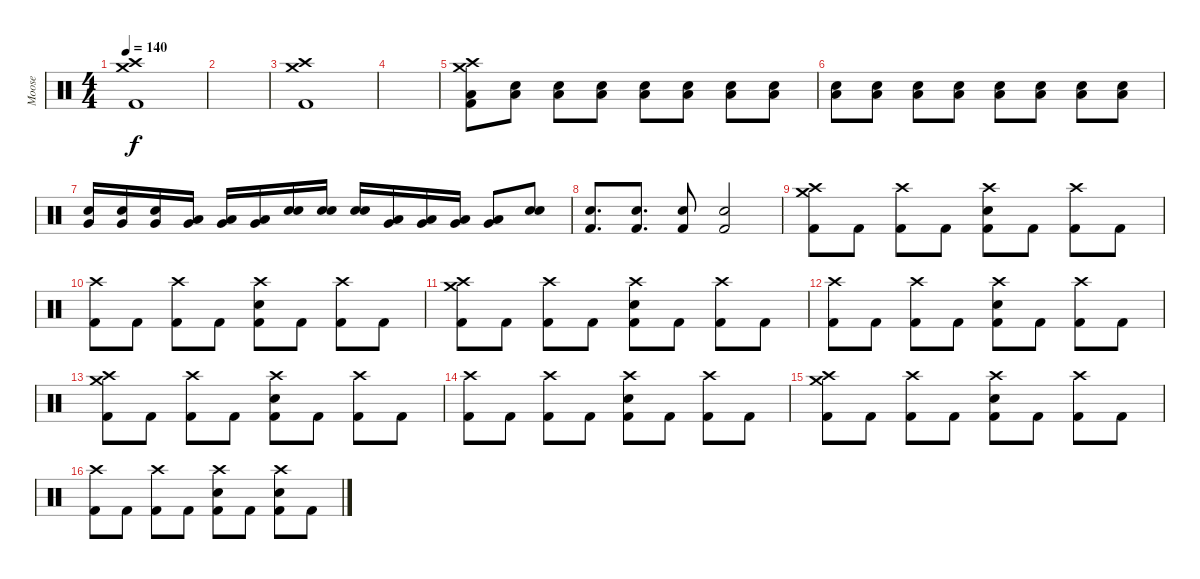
\track ("Moose" "Moose") {instrument percussion}
\staff {score}
\articulation defaults
\ts (4 4)
\tempo 140
\clef neutral
\ks c
("Crash high (hit)" "Crash medium (hit)" "Kick (hit) 2").1{dy f} |
|
("Crash high (hit)" "Crash medium (hit)" "Kick (hit) 2").1 |
|
("Low Tom (hit)" "Crash high (hit)" "Crash medium (hit)" "Kick (hit) 2").8 ("Snare (hit) 2" "Low Tom (hit)").8 ("Snare (hit) 2" "Low Tom (hit)").8 ("Snare (hit) 2" "Low Tom (hit)").8 ("Snare (hit) 2" "Low Tom (hit)").8 ("Snare (hit) 2" "Low Tom (hit)").8 ("Snare (hit) 2" "Low Tom (hit)").8 ("Snare (hit) 2" "Low Tom (hit)").8 |
("Snare (hit) 2" "Low Tom (hit)").8 ("Snare (hit) 2" "Low Tom (hit)").8 ("Snare (hit) 2" "Low Tom (hit)").8 ("Snare (hit) 2" "Low Tom (hit)").8 ("Snare (hit) 2" "Low Tom (hit)").8 ("Snare (hit) 2" "Low Tom (hit)").8 ("Snare (hit) 2" "Low Tom (hit)").8 ("Snare (hit) 2" "Low Tom (hit)").8 |
("Very Low Tom (hit)" "Snare (hit) 2").16 ("Very Low Tom (hit)" "Snare (hit) 2").16 ("Very Low Tom (hit)" "Snare (hit) 2").16 ("Low Floor Tom (hit)" "Very Low Tom (hit)").16 ("Low Floor Tom (hit)" "Very Low Tom (hit)").16 ("Low Floor Tom (hit)" "Very Low Tom (hit)").16 ("Electric Snare (hit)" "Snare (hit) 2").16 ("Electric Snare (hit)" "Snare (hit) 2").16 ("Electric Snare (hit)" "Snare (hit) 2").16 ("Low Tom (hit)" "Very Low Tom (hit)").16 ("Low Tom (hit)" "Very Low Tom (hit)").16 ("Low Tom (hit)" "Very Low Tom (hit)").16 ("Low Tom (hit)" "Very Low Tom (hit)").8 ("Electric Snare (hit)" "Snare (hit) 2").8 |
("Kick (hit) 2" "Snare (hit) 2").8{d} ("Kick (hit) 2" "Snare (hit) 2").8{d} ("Kick (hit) 2" "Snare (hit) 2").8 ("Kick (hit) 2" "Snare (hit) 2").2 |
("Crash high (hit)" "Crash medium (hit)" "Kick (hit) 2").8 "Kick (hit) 2".8 ("Crash high (hit)" "Kick (hit) 2").8 "Kick (hit) 2".8 ("Crash high (hit)" "Snare (hit) 2" "Kick (hit) 2").8 "Kick (hit) 2".8 ("Crash high (hit)" "Kick (hit) 2").8 "Kick (hit) 2".8 |
("Crash high (hit)" "Kick (hit) 2").8 "Kick (hit) 2".8 ("Crash high (hit)" "Kick (hit) 2").8 "Kick (hit) 2".8 ("Crash high (hit)" "Snare (hit) 2" "Kick (hit) 2").8 "Kick (hit) 2".8 ("Crash high (hit)" "Kick (hit) 2").8 "Kick (hit) 2".8 |
("Crash high (hit)" "Crash medium (hit)" "Kick (hit) 2").8 "Kick (hit) 2".8 ("Crash high (hit)" "Kick (hit) 2").8 "Kick (hit) 2".8 ("Crash high (hit)" "Snare (hit) 2" "Kick (hit) 2").8 "Kick (hit) 2".8 ("Crash high (hit)" "Kick (hit) 2").8 "Kick (hit) 2".8 |
("Crash high (hit)" "Kick (hit) 2").8 "Kick (hit) 2".8 ("Crash high (hit)" "Kick (hit) 2").8 "Kick (hit) 2".8 ("Crash high (hit)" "Snare (hit) 2" "Kick (hit) 2").8 "Kick (hit) 2".8 ("Crash high (hit)" "Kick (hit) 2").8 "Kick (hit) 2".8 |
("Crash high (hit)" "Crash medium (hit)" "Kick (hit) 2").8 "Kick (hit) 2".8 ("Crash high (hit)" "Kick (hit) 2").8 "Kick (hit) 2".8 ("Crash high (hit)" "Snare (hit) 2" "Kick (hit) 2").8 "Kick (hit) 2".8 ("Crash high (hit)" "Kick (hit) 2").8 "Kick (hit) 2".8 |
("Crash high (hit)" "Kick (hit) 2").8 "Kick (hit) 2".8 ("Crash high (hit)" "Kick (hit) 2").8 "Kick (hit) 2".8 ("Crash high (hit)" "Snare (hit) 2" "Kick (hit) 2").8 "Kick (hit) 2".8 ("Crash high (hit)" "Kick (hit) 2").8 "Kick (hit) 2".8 |
("Crash high (hit)" "Crash medium (hit)" "Kick (hit) 2").8 "Kick (hit) 2".8 ("Crash high (hit)" "Kick (hit) 2").8 "Kick (hit) 2".8 ("Crash high (hit)" "Snare (hit) 2" "Kick (hit) 2").8 "Kick (hit) 2".8 ("Crash high (hit)" "Kick (hit) 2").8 "Kick (hit) 2".8 |
("Crash high (hit)" "Kick (hit) 2").8 "Kick (hit) 2".8 ("Crash high (hit)" "Kick (hit) 2").8 "Kick (hit) 2".8 ("Crash high (hit)" "Snare (hit) 2" "Kick (hit) 2").8 "Kick (hit) 2".8 ("Crash high (hit)" "Snare (hit) 2" "Kick (hit) 2").8 "Kick (hit) 2".8
